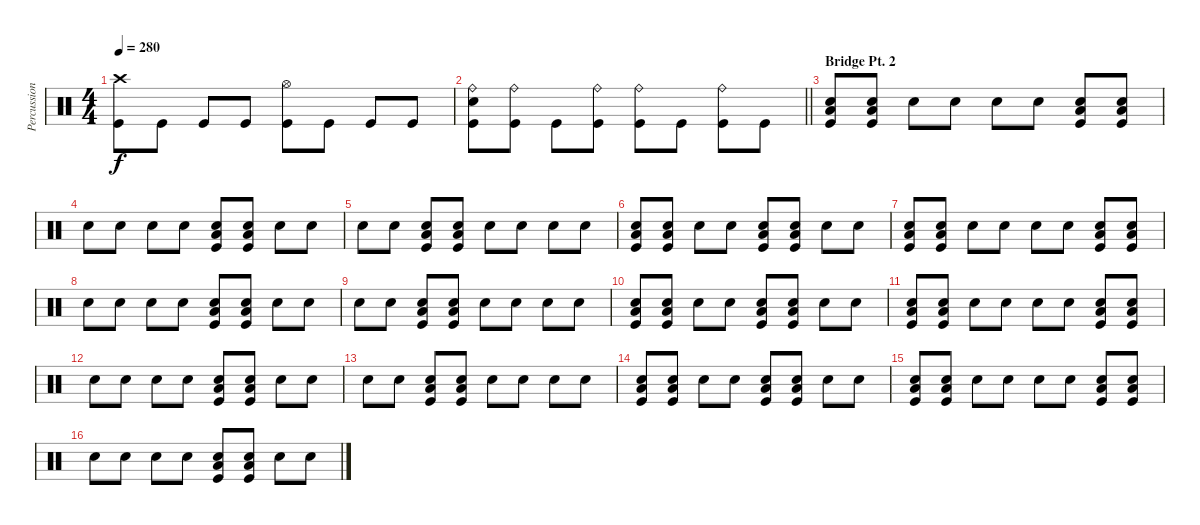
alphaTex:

\track ("Percussion" "Percussion") {instrument percussion}
\staff {score}
\articulation defaults
\ts (4 4)
\tempo 280
\clef neutral
\ks c
("Crash high (hit)" "Kick (hit)").8{dy f} "Kick (hit)".8 "Kick (hit)".8 "Kick (hit)".8 ("Hi-Hat (open)" "Kick (hit)").8 "Kick (hit)".8 "Kick (hit)".8 "Kick (hit)".8 |
\barLineRight lightlight
("Ride (bell)" "Electric Snare (hit)" "Kick (hit)").8 ("Ride (bell)" "Kick (hit)").8 "Kick (hit)".8 ("Ride (bell)" "Kick (hit)").8 ("Ride (bell)" "Kick (hit)").8 "Kick (hit)".8 ("Ride (bell)" "Kick (hit)").8 "Kick (hit)".8 |
\section ("" "Bridge Pt. 2")
("Low Floor Tom (hit)" "Electric Snare (hit)" "Kick (hit)").8 ("Low Floor Tom (hit)" "Electric Snare (hit)" "Kick (hit)").8 "Electric Snare (hit)".8 "Electric Snare (hit)".8 "Electric Snare (hit)".8 "Electric Snare (hit)".8 ("Low Floor Tom (hit)" "Electric Snare (hit)" "Kick (hit)").8 ("Low Floor Tom (hit)" "Electric Snare (hit)" "Kick (hit)").8 |
"Electric Snare (hit)".8 "Electric Snare (hit)".8 "Electric Snare (hit)".8 "Electric Snare (hit)".8 ("Low Floor Tom (hit)" "Electric Snare (hit)" "Kick (hit)").8 ("Low Floor Tom (hit)" "Electric Snare (hit)" "Kick (hit)").8 "Electric Snare (hit)".8 "Electric Snare (hit)".8 |
"Electric Snare (hit)".8 "Electric Snare (hit)".8 ("Low Floor Tom (hit)" "Electric Snare (hit)" "Kick (hit)").8 ("Low Floor Tom (hit)" "Electric Snare (hit)" "Kick (hit)").8 "Electric Snare (hit)".8 "Electric Snare (hit)".8 "Electric Snare (hit)".8 "Electric Snare (hit)".8 |
("Low Floor Tom (hit)" "Electric Snare (hit)" "Kick (hit)").8 ("Low Floor Tom (hit)" "Electric Snare (hit)" "Kick (hit)").8 "Electric Snare (hit)".8 "Electric Snare (hit)".8 ("Low Floor Tom (hit)" "Electric Snare (hit)" "Kick (hit)").8 ("Low Floor Tom (hit)" "Electric Snare (hit)" "Kick (hit)").8 "Electric Snare (hit)".8 "Electric Snare (hit)".8 |
("Low Floor Tom (hit)" "Electric Snare (hit)" "Kick (hit)").8 ("Low Floor Tom (hit)" "Electric Snare (hit)" "Kick (hit)").8 "Electric Snare (hit)".8 "Electric Snare (hit)".8 "Electric Snare (hit)".8 "Electric Snare (hit)".8 ("Low Floor Tom (hit)" "Electric Snare (hit)" "Kick (hit)").8 ("Low Floor Tom (hit)" "Electric Snare (hit)" "Kick (hit)").8 |
"Electric Snare (hit)".8 "Electric Snare (hit)".8 "Electric Snare (hit)".8 "Electric Snare (hit)".8 ("Low Floor Tom (hit)" "Electric Snare (hit)" "Kick (hit)").8 ("Low Floor Tom (hit)" "Electric Snare (hit)" "Kick (hit)").8 "Electric Snare (hit)".8 "Electric Snare (hit)".8 |
"Electric Snare (hit)".8 "Electric Snare (hit)".8 ("Low Floor Tom (hit)" "Electric Snare (hit)" "Kick (hit)").8 ("Low Floor Tom (hit)" "Electric Snare (hit)" "Kick (hit)").8 "Electric Snare (hit)".8 "Electric Snare (hit)".8 "Electric Snare (hit)".8 "Electric Snare (hit)".8 |
("Low Floor Tom (hit)" "Electric Snare (hit)" "Kick (hit)").8 ("Low Floor Tom (hit)" "Electric Snare (hit)" "Kick (hit)").8 "Electric Snare (hit)".8 "Electric Snare (hit)".8 ("Low Floor Tom (hit)" "Electric Snare (hit)" "Kick (hit)").8 ("Low Floor Tom (hit)" "Electric Snare (hit)" "Kick (hit)").8 "Electric Snare (hit)".8 "Electric Snare (hit)".8 |
("Low Floor Tom (hit)" "Electric Snare (hit)" "Kick (hit)").8 ("Low Floor Tom (hit)" "Electric Snare (hit)" "Kick (hit)").8 "Electric Snare (hit)".8 "Electric Snare (hit)".8 "Electric Snare (hit)".8 "Electric Snare (hit)".8 ("Low Floor Tom (hit)" "Electric Snare (hit)" "Kick (hit)").8 ("Low Floor Tom (hit)" "Electric Snare (hit)" "Kick (hit)").8 |
"Electric Snare (hit)".8 "Electric Snare (hit)".8 "Electric Snare (hit)".8 "Electric Snare (hit)".8 ("Low Floor Tom (hit)" "Electric Snare (hit)" "Kick (hit)").8 ("Low Floor Tom (hit)" "Electric Snare (hit)" "Kick (hit)").8 "Electric Snare (hit)".8 "Electric Snare (hit)".8 |
"Electric Snare (hit)".8 "Electric Snare (hit)".8 ("Low Floor Tom (hit)" "Electric Snare (hit)" "Kick (hit)").8 ("Low Floor Tom (hit)" "Electric Snare (hit)" "Kick (hit)").8 "Electric Snare (hit)".8 "Electric Snare (hit)".8 "Electric Snare (hit)".8 "Electric Snare (hit)".8 |
("Low Floor Tom (hit)" "Electric Snare (hit)" "Kick (hit)").8 ("Low Floor Tom (hit)" "Electric Snare (hit)" "Kick (hit)").8 "Electric Snare (hit)".8 "Electric Snare (hit)".8 ("Low Floor Tom (hit)" "Electric Snare (hit)" "Kick (hit)").8 ("Low Floor Tom (hit)" "Electric Snare (hit)" "Kick (hit)").8 "Electric Snare (hit)".8 "Electric Snare (hit)".8 |
("Low Floor Tom (hit)" "Electric Snare (hit)" "Kick (hit)").8 ("Low Floor Tom (hit)" "Electric Snare (hit)" "Kick (hit)").8 "Electric Snare (hit)".8 "Electric Snare (hit)".8 "Electric Snare (hit)".8 "Electric Snare (hit)".8 ("Low Floor Tom (hit)" "Electric Snare (hit)" "Kick (hit)").8 ("Low Floor Tom (hit)" "Electric Snare (hit)" "Kick (hit)").8 |
"Electric Snare (hit)".8 "Electric Snare (hit)".8 "Electric Snare (hit)".8 "Electric Snare (hit)".8 ("Low Floor Tom (hit)" "Electric Snare (hit)" "Kick (hit)").8 ("Low Floor Tom (hit)" "Electric Snare (hit)" "Kick (hit)").8 "Electric Snare (hit)".8 "Electric Snare (hit)".8
